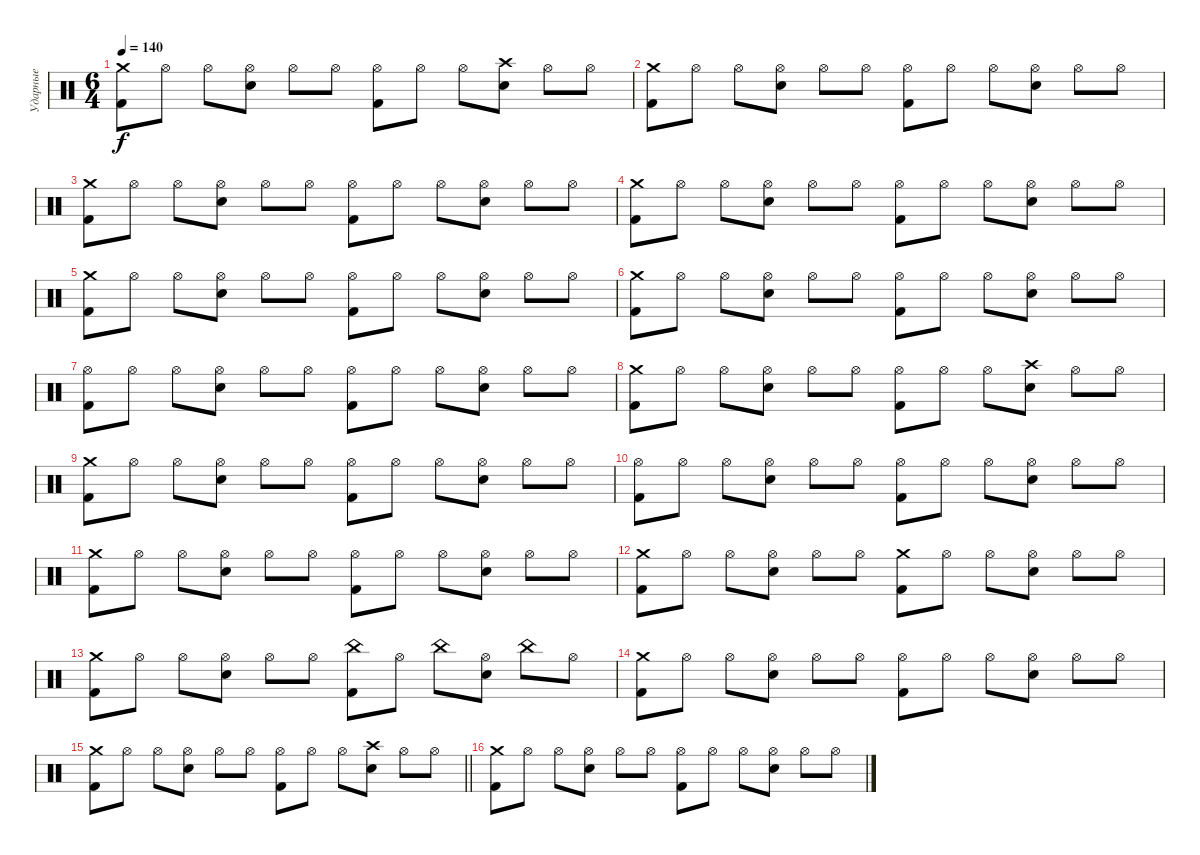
\track ("Ударные" "Ударные") {instrument percussion}
\staff {score}
\articulation defaults
\ts (6 4)
\tempo 140
\clef neutral
\ks c
("Crash medium (hit)" "Kick (hit) 2").8{dy f} "Hi-Hat (open)".8 "Hi-Hat (open)".8 ("Hi-Hat (open)" "Electric Snare (hit)").8 "Hi-Hat (open)".8 "Hi-Hat (open)".8 ("Hi-Hat (open)" "Kick (hit) 2").8 "Hi-Hat (open)".8 "Hi-Hat (open)".8 ("Crash high (hit)" "Electric Snare (hit)").8 "Hi-Hat (open)".8 "Hi-Hat (open)".8 |
("Crash medium (hit)" "Kick (hit) 2").8 "Hi-Hat (open)".8 "Hi-Hat (open)".8 ("Hi-Hat (open)" "Electric Snare (hit)").8 "Hi-Hat (open)".8 "Hi-Hat (open)".8 ("Hi-Hat (open)" "Kick (hit) 2").8 "Hi-Hat (open)".8 "Hi-Hat (open)".8 ("Hi-Hat (open)" "Electric Snare (hit)").8 "Hi-Hat (open)".8 "Hi-Hat (open)".8 |
("Crash medium (hit)" "Kick (hit) 2").8 "Hi-Hat (open)".8 "Hi-Hat (open)".8 ("Hi-Hat (open)" "Electric Snare (hit)").8 "Hi-Hat (open)".8 "Hi-Hat (open)".8 ("Hi-Hat (open)" "Kick (hit) 2").8 "Hi-Hat (open)".8 "Hi-Hat (open)".8 ("Hi-Hat (open)" "Electric Snare (hit)").8 "Hi-Hat (open)".8 "Hi-Hat (open)".8 |
("Crash medium (hit)" "Kick (hit) 2").8 "Hi-Hat (open)".8 "Hi-Hat (open)".8 ("Hi-Hat (open)" "Electric Snare (hit)").8 "Hi-Hat (open)".8 "Hi-Hat (open)".8 ("Hi-Hat (open)" "Kick (hit) 2").8 "Hi-Hat (open)".8 "Hi-Hat (open)".8 ("Hi-Hat (open)" "Electric Snare (hit)").8 "Hi-Hat (open)".8 "Hi-Hat (open)".8 |
("Crash medium (hit)" "Kick (hit) 2").8 "Hi-Hat (open)".8 "Hi-Hat (open)".8 ("Hi-Hat (open)" "Electric Snare (hit)").8 "Hi-Hat (open)".8 "Hi-Hat (open)".8 ("Hi-Hat (open)" "Kick (hit) 2").8 "Hi-Hat (open)".8 "Hi-Hat (open)".8 ("Hi-Hat (open)" "Electric Snare (hit)").8 "Hi-Hat (open)".8 "Hi-Hat (open)".8 |
("Crash medium (hit)" "Kick (hit) 2").8 "Hi-Hat (open)".8 "Hi-Hat (open)".8 ("Hi-Hat (open)" "Electric Snare (hit)").8 "Hi-Hat (open)".8 "Hi-Hat (open)".8 ("Hi-Hat (open)" "Kick (hit) 2").8 "Hi-Hat (open)".8 "Hi-Hat (open)".8 ("Hi-Hat (open)" "Electric Snare (hit)").8 "Hi-Hat (open)".8 "Hi-Hat (open)".8 |
("Hi-Hat (open)" "Kick (hit) 2").8 "Hi-Hat (open)".8 "Hi-Hat (open)".8 ("Hi-Hat (open)" "Electric Snare (hit)").8 "Hi-Hat (open)".8 "Hi-Hat (open)".8 ("Hi-Hat (open)" "Kick (hit) 2").8 "Hi-Hat (open)".8 "Hi-Hat (open)".8 ("Hi-Hat (open)" "Electric Snare (hit)").8 "Hi-Hat (open)".8 "Hi-Hat (open)".8 |
("Crash medium (hit)" "Kick (hit) 2").8 "Hi-Hat (open)".8 "Hi-Hat (open)".8 ("Hi-Hat (open)" "Electric Snare (hit)").8 "Hi-Hat (open)".8 "Hi-Hat (open)".8 ("Hi-Hat (open)" "Kick (hit) 2").8 "Hi-Hat (open)".8 "Hi-Hat (open)".8 ("Crash high (hit)" "Electric Snare (hit)").8 "Hi-Hat (open)".8 "Hi-Hat (open)".8 |
("Crash medium (hit)" "Kick (hit) 2").8 "Hi-Hat (open)".8 "Hi-Hat (open)".8 ("Hi-Hat (open)" "Electric Snare (hit)").8 "Hi-Hat (open)".8 "Hi-Hat (open)".8 ("Hi-Hat (open)" "Kick (hit) 2").8 "Hi-Hat (open)".8 "Hi-Hat (open)".8 ("Hi-Hat (open)" "Electric Snare (hit)").8 "Hi-Hat (open)".8 "Hi-Hat (open)".8 |
("Hi-Hat (open)" "Kick (hit) 2").8 "Hi-Hat (open)".8 "Hi-Hat (open)".8 ("Hi-Hat (open)" "Electric Snare (hit)").8 "Hi-Hat (open)".8 "Hi-Hat (open)".8 ("Hi-Hat (open)" "Kick (hit) 2").8 "Hi-Hat (open)".8 "Hi-Hat (open)".8 ("Hi-Hat (open)" "Electric Snare (hit)").8 "Hi-Hat (open)".8 "Hi-Hat (open)".8 |
("Crash medium (hit)" "Kick (hit) 2").8 "Hi-Hat (open)".8 "Hi-Hat (open)".8 ("Hi-Hat (open)" "Electric Snare (hit)").8 "Hi-Hat (open)".8 "Hi-Hat (open)".8 ("Hi-Hat (open)" "Kick (hit) 2").8 "Hi-Hat (open)".8 "Hi-Hat (open)".8 ("Hi-Hat (open)" "Electric Snare (hit)").8 "Hi-Hat (open)".8 "Hi-Hat (open)".8 |
("Crash medium (hit)" "Kick (hit) 2").8 "Hi-Hat (open)".8 "Hi-Hat (open)".8 ("Hi-Hat (open)" "Electric Snare (hit)").8 "Hi-Hat (open)".8 "Hi-Hat (open)".8 ("Crash medium (hit)" "Kick (hit) 2").8 "Hi-Hat (open)".8 "Hi-Hat (open)".8 ("Hi-Hat (open)" "Electric Snare (hit)").8 "Hi-Hat (open)".8 "Hi-Hat (open)".8 |
("Crash medium (hit)" "Kick (hit) 2").8 "Hi-Hat (open)".8 "Hi-Hat (open)".8 ("Hi-Hat (open)" "Electric Snare (hit)").8 "Hi-Hat (open)".8 "Hi-Hat (open)".8 ("China (hit)" "Kick (hit) 2").8 "Hi-Hat (open)".8 "China (hit)".8 ("Hi-Hat (open)" "Electric Snare (hit)").8 "China (hit)".8 "Hi-Hat (open)".8 |
("Crash medium (hit)" "Kick (hit) 2").8 "Hi-Hat (open)".8 "Hi-Hat (open)".8 ("Hi-Hat (open)" "Electric Snare (hit)").8 "Hi-Hat (open)".8 "Hi-Hat (open)".8 ("Hi-Hat (open)" "Kick (hit) 2").8 "Hi-Hat (open)".8 "Hi-Hat (open)".8 ("Hi-Hat (open)" "Electric Snare (hit)").8 "Hi-Hat (open)".8 "Hi-Hat (open)".8 |
\barLineRight lightlight
("Crash medium (hit)" "Kick (hit) 2").8 "Hi-Hat (open)".8 "Hi-Hat (open)".8 ("Hi-Hat (open)" "Electric Snare (hit)").8 "Hi-Hat (open)".8 "Hi-Hat (open)".8 ("Hi-Hat (open)" "Kick (hit) 2").8 "Hi-Hat (open)".8 "Hi-Hat (open)".8 ("Crash high (hit)" "Electric Snare (hit)").8 "Hi-Hat (open)".8 "Hi-Hat (open)".8 |
("Crash medium (hit)" "Kick (hit) 2").8 "Hi-Hat (open)".8 "Hi-Hat (open)".8 ("Hi-Hat (open)" "Electric Snare (hit)").8 "Hi-Hat (open)".8 "Hi-Hat (open)".8 ("Hi-Hat (open)" "Kick (hit) 2").8 "Hi-Hat (open)".8 "Hi-Hat (open)".8 ("Hi-Hat (open)" "Electric Snare (hit)").8 "Hi-Hat (open)".8 "Hi-Hat (open)".8
